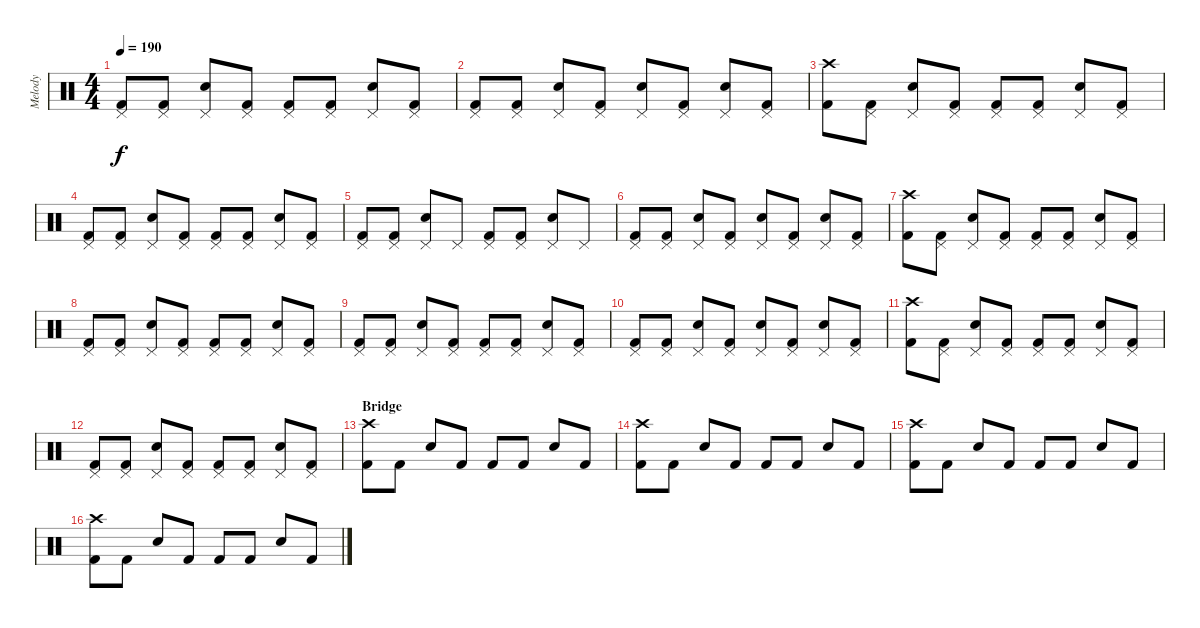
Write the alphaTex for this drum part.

\track ("Melody" "Melody") {instrument percussion}
\staff {score}
\articulation defaults
\ts (4 4)
\tempo 190
\clef neutral
\ks c
("Pedal Hi-Hat (hit)" "Kick (hit) 2").8{dy f} ("Pedal Hi-Hat (hit)" "Kick (hit) 2").8 ("Pedal Hi-Hat (hit)" "Snare (hit) 2").8 ("Pedal Hi-Hat (hit)" "Kick (hit) 2").8 ("Pedal Hi-Hat (hit)" "Kick (hit) 2").8 ("Pedal Hi-Hat (hit)" "Kick (hit) 2").8 ("Pedal Hi-Hat (hit)" "Snare (hit) 2").8 ("Pedal Hi-Hat (hit)" "Kick (hit) 2").8 |
("Pedal Hi-Hat (hit)" "Kick (hit) 2").8 ("Pedal Hi-Hat (hit)" "Kick (hit) 2").8 ("Pedal Hi-Hat (hit)" "Snare (hit) 2").8 ("Pedal Hi-Hat (hit)" "Kick (hit) 2").8 ("Pedal Hi-Hat (hit)" "Snare (hit) 2").8 ("Pedal Hi-Hat (hit)" "Kick (hit) 2").8 ("Pedal Hi-Hat (hit)" "Snare (hit) 2").8 ("Pedal Hi-Hat (hit)" "Kick (hit) 2").8 |
("Crash high (hit)" "Kick (hit) 2").8 ("Pedal Hi-Hat (hit)" "Kick (hit) 2").8 ("Pedal Hi-Hat (hit)" "Snare (hit) 2").8 ("Pedal Hi-Hat (hit)" "Kick (hit) 2").8 ("Pedal Hi-Hat (hit)" "Kick (hit) 2").8 ("Pedal Hi-Hat (hit)" "Kick (hit) 2").8 ("Pedal Hi-Hat (hit)" "Snare (hit) 2").8 ("Pedal Hi-Hat (hit)" "Kick (hit) 2").8 |
("Pedal Hi-Hat (hit)" "Kick (hit) 2").8 ("Pedal Hi-Hat (hit)" "Kick (hit) 2").8 ("Pedal Hi-Hat (hit)" "Snare (hit) 2").8 ("Pedal Hi-Hat (hit)" "Kick (hit) 2").8 ("Pedal Hi-Hat (hit)" "Kick (hit) 2").8 ("Pedal Hi-Hat (hit)" "Kick (hit) 2").8 ("Pedal Hi-Hat (hit)" "Snare (hit) 2").8 ("Pedal Hi-Hat (hit)" "Kick (hit) 2").8 |
("Pedal Hi-Hat (hit)" "Kick (hit) 2").8 ("Pedal Hi-Hat (hit)" "Kick (hit) 2").8 ("Pedal Hi-Hat (hit)" "Snare (hit) 2").8 "Pedal Hi-Hat (hit)".8 ("Pedal Hi-Hat (hit)" "Kick (hit) 2").8 ("Pedal Hi-Hat (hit)" "Kick (hit) 2").8 ("Pedal Hi-Hat (hit)" "Snare (hit) 2").8 "Pedal Hi-Hat (hit)".8 |
("Pedal Hi-Hat (hit)" "Kick (hit) 2").8 ("Pedal Hi-Hat (hit)" "Kick (hit) 2").8 ("Pedal Hi-Hat (hit)" "Snare (hit) 2").8 ("Pedal Hi-Hat (hit)" "Kick (hit) 2").8 ("Pedal Hi-Hat (hit)" "Snare (hit) 2").8 ("Pedal Hi-Hat (hit)" "Kick (hit) 2").8 ("Pedal Hi-Hat (hit)" "Snare (hit) 2").8 ("Pedal Hi-Hat (hit)" "Kick (hit) 2").8 |
("Crash high (hit)" "Kick (hit) 2").8 ("Pedal Hi-Hat (hit)" "Kick (hit) 2").8 ("Pedal Hi-Hat (hit)" "Snare (hit) 2").8 ("Pedal Hi-Hat (hit)" "Kick (hit) 2").8 ("Pedal Hi-Hat (hit)" "Kick (hit) 2").8 ("Pedal Hi-Hat (hit)" "Kick (hit) 2").8 ("Pedal Hi-Hat (hit)" "Snare (hit) 2").8 ("Pedal Hi-Hat (hit)" "Kick (hit) 2").8 |
("Pedal Hi-Hat (hit)" "Kick (hit) 2").8 ("Pedal Hi-Hat (hit)" "Kick (hit) 2").8 ("Pedal Hi-Hat (hit)" "Snare (hit) 2").8 ("Pedal Hi-Hat (hit)" "Kick (hit) 2").8 ("Pedal Hi-Hat (hit)" "Kick (hit) 2").8 ("Pedal Hi-Hat (hit)" "Kick (hit) 2").8 ("Pedal Hi-Hat (hit)" "Snare (hit) 2").8 ("Pedal Hi-Hat (hit)" "Kick (hit) 2").8 |
("Pedal Hi-Hat (hit)" "Kick (hit) 2").8 ("Pedal Hi-Hat (hit)" "Kick (hit) 2").8 ("Pedal Hi-Hat (hit)" "Snare (hit) 2").8 ("Pedal Hi-Hat (hit)" "Kick (hit) 2").8 ("Pedal Hi-Hat (hit)" "Kick (hit) 2").8 ("Pedal Hi-Hat (hit)" "Kick (hit) 2").8 ("Pedal Hi-Hat (hit)" "Snare (hit) 2").8 ("Pedal Hi-Hat (hit)" "Kick (hit) 2").8 |
("Pedal Hi-Hat (hit)" "Kick (hit) 2").8 ("Pedal Hi-Hat (hit)" "Kick (hit) 2").8 ("Pedal Hi-Hat (hit)" "Snare (hit) 2").8 ("Pedal Hi-Hat (hit)" "Kick (hit) 2").8 ("Pedal Hi-Hat (hit)" "Snare (hit) 2").8 ("Pedal Hi-Hat (hit)" "Kick (hit) 2").8 ("Pedal Hi-Hat (hit)" "Snare (hit) 2").8 ("Pedal Hi-Hat (hit)" "Kick (hit) 2").8 |
("Crash high (hit)" "Kick (hit) 2").8 ("Pedal Hi-Hat (hit)" "Kick (hit) 2").8 ("Pedal Hi-Hat (hit)" "Snare (hit) 2").8 ("Pedal Hi-Hat (hit)" "Kick (hit) 2").8 ("Pedal Hi-Hat (hit)" "Kick (hit) 2").8 ("Pedal Hi-Hat (hit)" "Kick (hit) 2").8 ("Pedal Hi-Hat (hit)" "Snare (hit) 2").8 ("Pedal Hi-Hat (hit)" "Kick (hit) 2").8 |
("Pedal Hi-Hat (hit)" "Kick (hit) 2").8 ("Pedal Hi-Hat (hit)" "Kick (hit) 2").8 ("Pedal Hi-Hat (hit)" "Snare (hit) 2").8 ("Pedal Hi-Hat (hit)" "Kick (hit) 2").8 ("Pedal Hi-Hat (hit)" "Kick (hit) 2").8 ("Pedal Hi-Hat (hit)" "Kick (hit) 2").8 ("Pedal Hi-Hat (hit)" "Snare (hit) 2").8 ("Pedal Hi-Hat (hit)" "Kick (hit) 2").8 |
\section ("" "Bridge")
("Crash high (hit)" "Kick (hit) 2").8 "Kick (hit) 2".8 "Snare (hit) 2".8 "Kick (hit) 2".8 "Kick (hit) 2".8 "Kick (hit) 2".8 "Snare (hit) 2".8 "Kick (hit) 2".8 |
("Crash high (hit)" "Kick (hit) 2").8 "Kick (hit) 2".8 "Snare (hit) 2".8 "Kick (hit) 2".8 "Kick (hit) 2".8 "Kick (hit) 2".8 "Snare (hit) 2".8 "Kick (hit) 2".8 |
("Crash high (hit)" "Kick (hit) 2").8 "Kick (hit) 2".8 "Snare (hit) 2".8 "Kick (hit) 2".8 "Kick (hit) 2".8 "Kick (hit) 2".8 "Snare (hit) 2".8 "Kick (hit) 2".8 |
("Crash high (hit)" "Kick (hit) 2").8 "Kick (hit) 2".8 "Snare (hit) 2".8 "Kick (hit) 2".8 "Kick (hit) 2".8 "Kick (hit) 2".8 "Snare (hit) 2".8 "Kick (hit) 2".8
